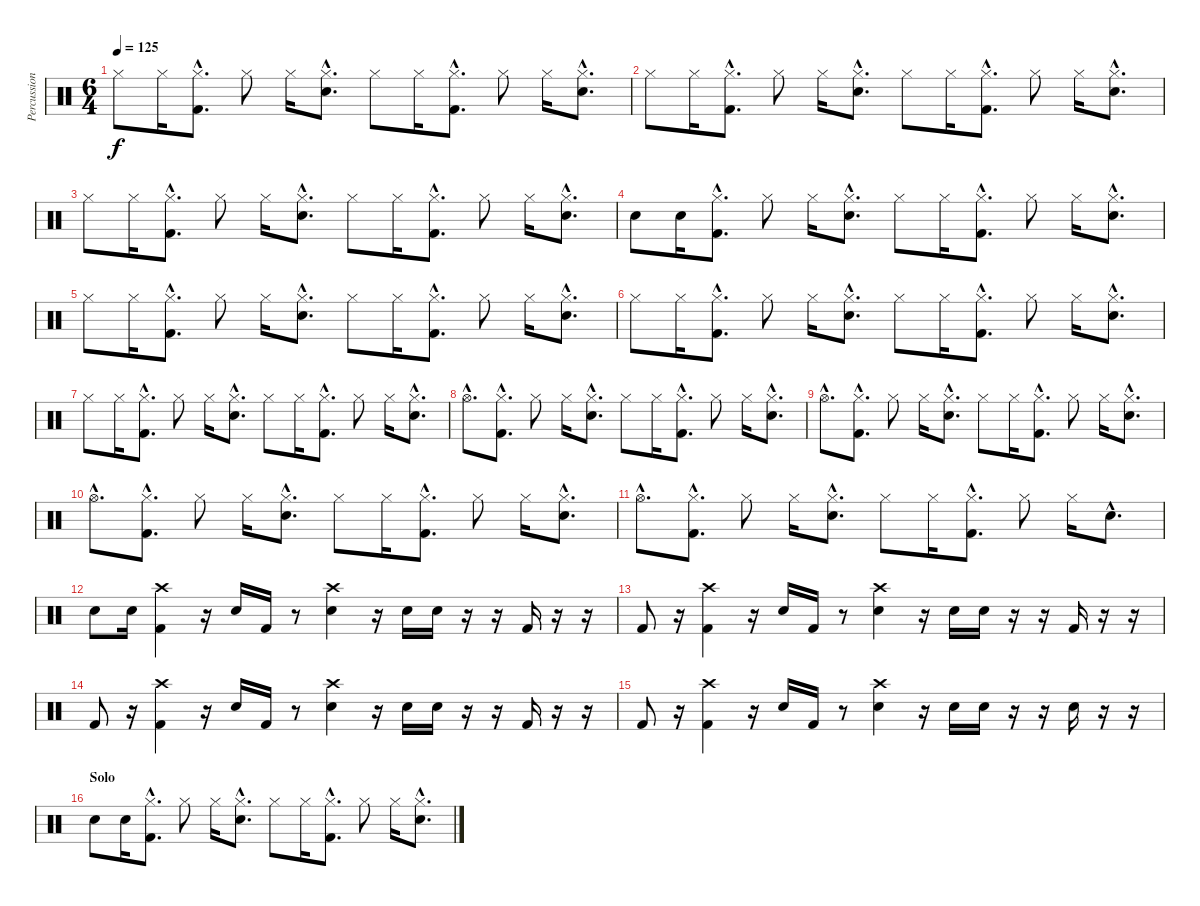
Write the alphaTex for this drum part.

\track ("Percussions" "Percussion") {instrument percussion}
\staff {score}
\articulation defaults
\ts (6 4)
\tempo 125
\clef neutral
\ks c "Hi-Hat (closed)".8{dy f} "Hi-Hat (closed)".16
("Hi-Hat (closed)"{hac} "Kick (hit) 2"{hac}).8{d} "Hi-Hat (closed)".8 "Hi-Hat (closed)".16 ("Hi-Hat (closed)"{hac} "Electric Snare (hit)"{hac}).8{d} "Hi-Hat (closed)".8 "Hi-Hat (closed)".16 ("Hi-Hat (closed)"{hac} "Kick (hit) 2"{hac}).8{d} "Hi-Hat (closed)".8 "Hi-Hat (closed)".16 ("Hi-Hat (closed)"{hac} "Electric Snare (hit)"{hac}).8{d} |
"Hi-Hat (closed)".8 "Hi-Hat (closed)".16 ("Hi-Hat (closed)"{hac} "Kick (hit) 2"{hac}).8{d} "Hi-Hat (closed)".8 "Hi-Hat (closed)".16 ("Hi-Hat (closed)"{hac} "Electric Snare (hit)"{hac}).8{d} "Hi-Hat (closed)".8 "Hi-Hat (closed)".16 ("Hi-Hat (closed)"{hac} "Kick (hit) 2"{hac}).8{d} "Hi-Hat (closed)".8 "Hi-Hat (closed)".16 ("Hi-Hat (closed)"{hac} "Electric Snare (hit)"{hac}).8{d} |
"Hi-Hat (closed)".8 "Hi-Hat (closed)".16 ("Hi-Hat (closed)"{hac} "Kick (hit) 2"{hac}).8{d} "Hi-Hat (closed)".8 "Hi-Hat (closed)".16 ("Hi-Hat (closed)"{hac} "Electric Snare (hit)"{hac}).8{d} "Hi-Hat (closed)".8 "Hi-Hat (closed)".16 ("Hi-Hat (closed)"{hac} "Kick (hit) 2"{hac}).8{d} "Hi-Hat (closed)".8 "Hi-Hat (closed)".16 ("Hi-Hat (closed)"{hac} "Electric Snare (hit)"{hac}).8{d} |
"Electric Snare (hit)".8 "Electric Snare (hit)".16 ("Hi-Hat (closed)"{hac} "Kick (hit) 2"{hac}).8{d} "Hi-Hat (closed)".8 "Hi-Hat (closed)".16 ("Hi-Hat (closed)"{hac} "Electric Snare (hit)"{hac}).8{d} "Hi-Hat (closed)".8 "Hi-Hat (closed)".16 ("Hi-Hat (closed)"{hac} "Kick (hit) 2"{hac}).8{d} "Hi-Hat (closed)".8 "Hi-Hat (closed)".16 ("Hi-Hat (closed)"{hac} "Electric Snare (hit)"{hac}).8{d} |
"Hi-Hat (closed)".8 "Hi-Hat (closed)".16 ("Hi-Hat (closed)"{hac} "Kick (hit) 2"{hac}).8{d} "Hi-Hat (closed)".8 "Hi-Hat (closed)".16 ("Hi-Hat (closed)"{hac} "Electric Snare (hit)"{hac}).8{d} "Hi-Hat (closed)".8 "Hi-Hat (closed)".16 ("Hi-Hat (closed)"{hac} "Kick (hit) 2"{hac}).8{d} "Hi-Hat (closed)".8 "Hi-Hat (closed)".16 ("Hi-Hat (closed)"{hac} "Electric Snare (hit)"{hac}).8{d} |
"Hi-Hat (closed)".8 "Hi-Hat (closed)".16 ("Hi-Hat (closed)"{hac} "Kick (hit) 2"{hac}).8{d} "Hi-Hat (closed)".8 "Hi-Hat (closed)".16 ("Hi-Hat (closed)"{hac} "Electric Snare (hit)"{hac}).8{d} "Hi-Hat (closed)".8 "Hi-Hat (closed)".16 ("Hi-Hat (closed)"{hac} "Kick (hit) 2"{hac}).8{d} "Hi-Hat (closed)".8 "Hi-Hat (closed)".16 ("Hi-Hat (closed)"{hac} "Electric Snare (hit)"{hac}).8{d} |
"Hi-Hat (closed)".8 "Hi-Hat (closed)".16 ("Hi-Hat (closed)"{hac} "Kick (hit) 2"{hac}).8{d} "Hi-Hat (closed)".8 "Hi-Hat (closed)".16 ("Hi-Hat (closed)"{hac} "Electric Snare (hit)"{hac}).8{d} "Hi-Hat (closed)".8 "Hi-Hat (closed)".16 ("Hi-Hat (closed)"{hac} "Kick (hit) 2"{hac}).8{d} "Hi-Hat (closed)".8 "Hi-Hat (closed)".16 ("Hi-Hat (closed)"{hac} "Electric Snare (hit)"{hac}).8{d} |
"Hi-Hat (open)"{hac}.8{d} ("Hi-Hat (closed)"{hac} "Kick (hit) 2"{hac}).8{d} "Hi-Hat (closed)".8 "Hi-Hat (closed)".16 ("Hi-Hat (closed)"{hac} "Electric Snare (hit)"{hac}).8{d} "Hi-Hat (closed)".8 "Hi-Hat (closed)".16 ("Hi-Hat (closed)"{hac} "Kick (hit) 2"{hac}).8{d} "Hi-Hat (closed)".8 "Hi-Hat (closed)".16 ("Hi-Hat (closed)"{hac} "Electric Snare (hit)"{hac}).8{d} |
"Hi-Hat (open)"{hac}.8{d} ("Hi-Hat (closed)"{hac} "Kick (hit) 2"{hac}).8{d} "Hi-Hat (closed)".8 "Hi-Hat (closed)".16 ("Hi-Hat (closed)"{hac} "Electric Snare (hit)"{hac}).8{d} "Hi-Hat (closed)".8 "Hi-Hat (closed)".16 ("Hi-Hat (closed)"{hac} "Kick (hit) 2"{hac}).8{d} "Hi-Hat (closed)".8 "Hi-Hat (closed)".16 ("Hi-Hat (closed)"{hac} "Electric Snare (hit)"{hac}).8{d} |
"Hi-Hat (open)"{hac}.8{d} ("Hi-Hat (closed)"{hac} "Kick (hit) 2"{hac}).8{d} "Hi-Hat (closed)".8 "Hi-Hat (closed)".16 ("Hi-Hat (closed)"{hac} "Electric Snare (hit)"{hac}).8{d} "Hi-Hat (closed)".8 "Hi-Hat (closed)".16 ("Hi-Hat (closed)"{hac} "Kick (hit) 2"{hac}).8{d} "Hi-Hat (closed)".8 "Hi-Hat (closed)".16 ("Hi-Hat (closed)"{hac} "Electric Snare (hit)"{hac}).8{d} |
"Hi-Hat (open)"{hac}.8{d} ("Hi-Hat (closed)"{hac} "Kick (hit) 2"{hac}).8{d} "Hi-Hat (closed)".8 "Hi-Hat (closed)".16 ("Hi-Hat (closed)"{hac} "Electric Snare (hit)"{hac}).8{d} "Hi-Hat (closed)".8 "Hi-Hat (closed)".16 ("Hi-Hat (closed)"{hac} "Kick (hit) 2"{hac}).8{d} "Hi-Hat (closed)".8 "Hi-Hat (closed)".16 "Electric Snare (hit)"{hac}.8{d} |
"Electric Snare (hit)".8 "Electric Snare (hit)".16 ("Crash high (hit)" "Kick (hit) 2").4 r.16 "Electric Snare (hit)".16 "Kick (hit) 2".16 r.8 ("Crash high (hit)" "Electric Snare (hit)").4 r.16 "Electric Snare (hit)".16 "Electric Snare (hit)".16 r.16 r.16 "Kick (hit) 2".16 r.16 r.16 |
"Kick (hit) 2".8 r.16 ("Crash high (hit)" "Kick (hit) 2").4 r.16 "Electric Snare (hit)".16 "Kick (hit) 2".16 r.8 ("Crash high (hit)" "Electric Snare (hit)").4 r.16 "Electric Snare (hit)".16 "Electric Snare (hit)".16 r.16 r.16 "Kick (hit) 2".16 r.16 r.16 |
"Kick (hit) 2".8 r.16 ("Crash high (hit)" "Kick (hit) 2").4 r.16 "Electric Snare (hit)".16 "Kick (hit) 2".16 r.8 ("Crash high (hit)" "Electric Snare (hit)").4 r.16 "Electric Snare (hit)".16 "Electric Snare (hit)".16 r.16 r.16 "Kick (hit) 2".16 r.16 r.16 |
"Kick (hit) 2".8 r.16 ("Crash high (hit)" "Kick (hit) 2").4 r.16 "Electric Snare (hit)".16 "Kick (hit) 2".16 r.8 ("Crash high (hit)" "Electric Snare (hit)").4 r.16 "Electric Snare (hit)".16 "Electric Snare (hit)".16 r.16 r.16 "Electric Snare (hit)".16 r.16 r.16 |
\section ("" "Solo")
"Electric Snare (hit)".8 "Electric Snare (hit)".16 ("Hi-Hat (closed)"{hac} "Kick (hit) 2"{hac}).8{d} "Hi-Hat (closed)".8 "Hi-Hat (closed)".16 ("Hi-Hat (closed)"{hac} "Electric Snare (hit)"{hac}).8{d} "Hi-Hat (closed)".8 "Hi-Hat (closed)".16 ("Hi-Hat (closed)"{hac} "Kick (hit) 2"{hac}).8{d} "Hi-Hat (closed)".8 "Hi-Hat (closed)".16 ("Hi-Hat (closed)"{hac} "Electric Snare (hit)"{hac}).8{d}
